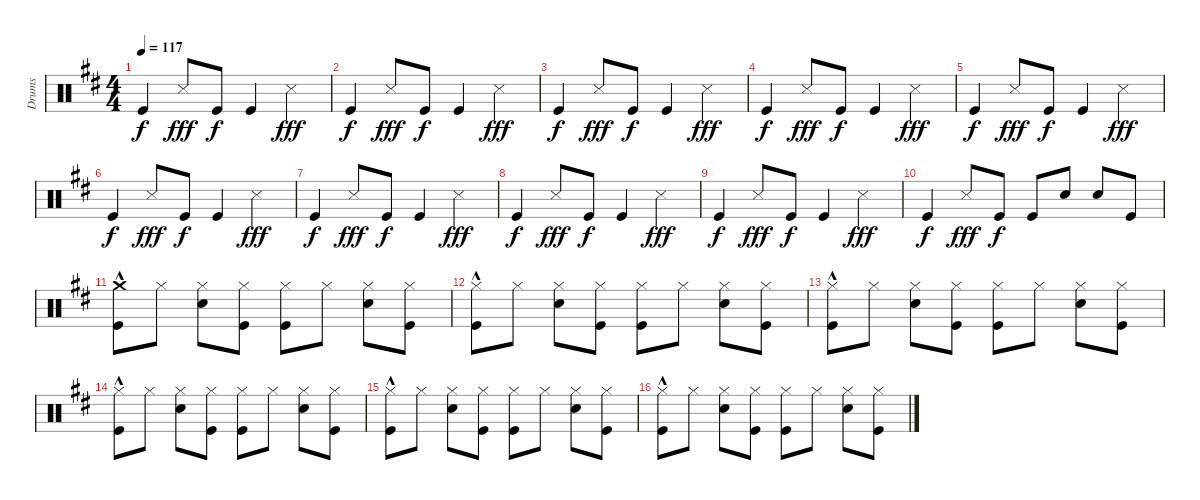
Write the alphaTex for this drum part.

\track ("Drums" "Drums") {instrument percussion}
\staff {score}
\articulation defaults
\ts (4 4)
\tempo 117
\clef neutral
\ks d "Kick (hit)".4{dy f} "Snare (side stick) 3".8{dy fff} "Kick (hit)".8{dy f} "Kick (hit)".4 "Snare (side stick) 3".4{dy fff}
|
"Kick (hit)".4{dy f} "Snare (side stick) 3".8{dy fff} "Kick (hit)".8{dy f} "Kick (hit)".4 "Snare (side stick) 3".4{dy fff} |
"Kick (hit)".4{dy f} "Snare (side stick) 3".8{dy fff} "Kick (hit)".8{dy f} "Kick (hit)".4 "Snare (side stick) 3".4{dy fff} |
"Kick (hit)".4{dy f} "Snare (side stick) 3".8{dy fff} "Kick (hit)".8{dy f} "Kick (hit)".4 "Snare (side stick) 3".4{dy fff} |
"Kick (hit)".4{dy f} "Snare (side stick) 3".8{dy fff} "Kick (hit)".8{dy f} "Kick (hit)".4 "Snare (side stick) 3".4{dy fff} |
"Kick (hit)".4{dy f} "Snare (side stick) 3".8{dy fff} "Kick (hit)".8{dy f} "Kick (hit)".4 "Snare (side stick) 3".4{dy fff} |
"Kick (hit)".4{dy f} "Snare (side stick) 3".8{dy fff} "Kick (hit)".8{dy f} "Kick (hit)".4 "Snare (side stick) 3".4{dy fff} |
"Kick (hit)".4{dy f} "Snare (side stick) 3".8{dy fff} "Kick (hit)".8{dy f} "Kick (hit)".4 "Snare (side stick) 3".4{dy fff} |
"Kick (hit)".4{dy f} "Snare (side stick) 3".8{dy fff} "Kick (hit)".8{dy f} "Kick (hit)".4 "Snare (side stick) 3".4{dy fff} |
"Kick (hit)".4{dy f} "Snare (side stick) 3".8{dy fff} "Kick (hit)".8{dy f} "Kick (hit)".8 "Snare (hit) 2".8 "Snare (hit) 2".8 "Kick (hit)".8 |
("Crash medium (hit)"{hac} "Kick (hit)").8 "Hi-Hat (closed)".8 ("Hi-Hat (closed)" "Snare (hit) 2").8 ("Hi-Hat (closed)" "Kick (hit)").8 ("Hi-Hat (closed)" "Kick (hit)").8 "Hi-Hat (closed)".8 ("Hi-Hat (closed)" "Snare (hit) 2").8 ("Hi-Hat (closed)" "Kick (hit)").8 |
("Hi-Hat (closed)"{hac} "Kick (hit)").8 "Hi-Hat (closed)".8 ("Hi-Hat (closed)" "Snare (hit) 2").8 ("Hi-Hat (closed)" "Kick (hit)").8 ("Hi-Hat (closed)" "Kick (hit)").8 "Hi-Hat (closed)".8 ("Hi-Hat (closed)" "Snare (hit) 2").8 ("Hi-Hat (closed)" "Kick (hit)").8 |
("Hi-Hat (closed)"{hac} "Kick (hit)").8 "Hi-Hat (closed)".8 ("Hi-Hat (closed)" "Snare (hit) 2").8 ("Hi-Hat (closed)" "Kick (hit)").8 ("Hi-Hat (closed)" "Kick (hit)").8 "Hi-Hat (closed)".8 ("Hi-Hat (closed)" "Snare (hit) 2").8 ("Hi-Hat (closed)" "Kick (hit)").8 |
("Hi-Hat (closed)"{hac} "Kick (hit)").8 "Hi-Hat (closed)".8 ("Hi-Hat (closed)" "Snare (hit) 2").8 ("Hi-Hat (closed)" "Kick (hit)").8 ("Hi-Hat (closed)" "Kick (hit)").8 "Hi-Hat (closed)".8 ("Hi-Hat (closed)" "Snare (hit) 2").8 ("Hi-Hat (closed)" "Kick (hit)").8 |
("Hi-Hat (closed)"{hac} "Kick (hit)").8 "Hi-Hat (closed)".8 ("Hi-Hat (closed)" "Snare (hit) 2").8 ("Hi-Hat (closed)" "Kick (hit)").8 ("Hi-Hat (closed)" "Kick (hit)").8 "Hi-Hat (closed)".8 ("Hi-Hat (closed)" "Snare (hit) 2").8 ("Hi-Hat (closed)" "Kick (hit)").8 |
("Hi-Hat (closed)"{hac} "Kick (hit)").8 "Hi-Hat (closed)".8 ("Hi-Hat (closed)" "Snare (hit) 2").8 ("Hi-Hat (closed)" "Kick (hit)").8 ("Hi-Hat (closed)" "Kick (hit)").8 "Hi-Hat (closed)".8 ("Hi-Hat (closed)" "Snare (hit) 2").8 ("Hi-Hat (closed)" "Kick (hit)").8
